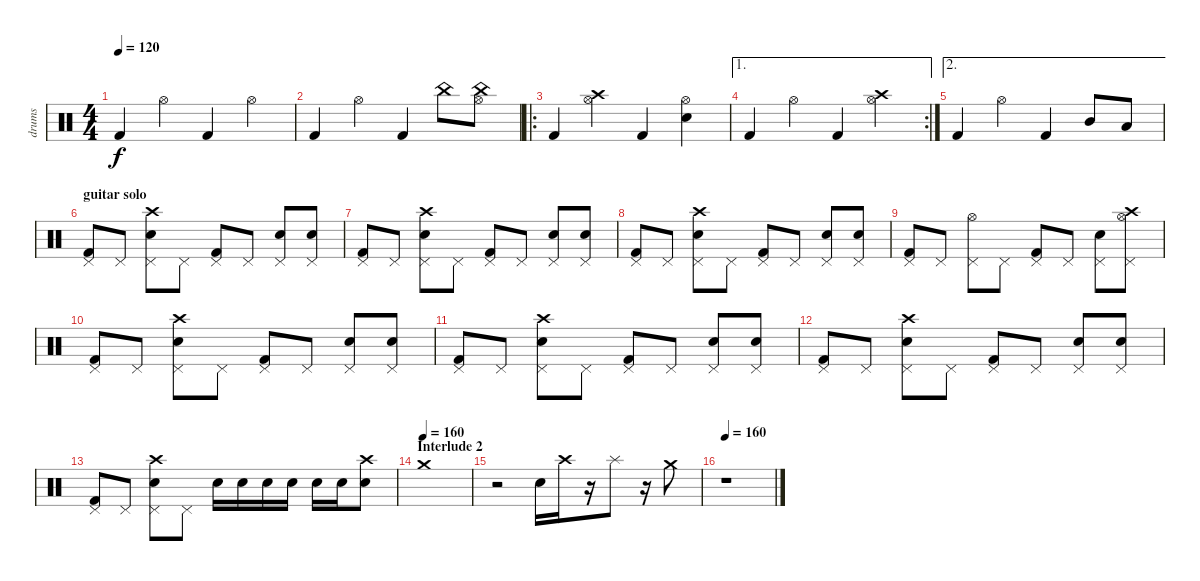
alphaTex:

\track ("drums" "drums") {instrument percussion}
\staff {score}
\articulation defaults
\ts (4 4)
\tempo 120
\clef neutral
\ks c "Kick (hit) 2".4{dy f} "Hi-Hat (open)".4 "Kick (hit) 2".4 "Hi-Hat (open)".4
|
"Kick (hit) 2".4 "Hi-Hat (open)".4 "Kick (hit) 2".4 "China (hit)".8 ("China (hit)" "Hi-Hat (open)").8 |
\ro "Kick (hit) 2".4
("Crash high (hit)" "Hi-Hat (open)").4 "Kick (hit) 2".4 ("Electric Snare (hit)" "Hi-Hat (open)").4 |
\ae 1
\rc 2 "Kick (hit) 2".4 "Hi-Hat (open)".4 "Kick (hit) 2".4
("Crash high (hit)" "Hi-Hat (open)").4 |
\ae 2 "Kick (hit) 2".4 "Hi-Hat (open)".4 "Kick (hit) 2".4 "Mid Tom (hit)".8 "Low Tom (hit)".8
|
\section ("" "guitar solo")
("Kick (hit) 2" "Pedal Hi-Hat (hit)").8 "Pedal Hi-Hat (hit)".8 ("Crash high (hit)" "Electric Snare (hit)" "Pedal Hi-Hat (hit)").8 "Pedal Hi-Hat (hit)".8 ("Kick (hit) 2" "Pedal Hi-Hat (hit)").8 "Pedal Hi-Hat (hit)".8 ("Electric Snare (hit)" "Pedal Hi-Hat (hit)").8 ("Electric Snare (hit)" "Pedal Hi-Hat (hit)").8 |
("Kick (hit) 2" "Pedal Hi-Hat (hit)").8 "Pedal Hi-Hat (hit)".8 ("Crash high (hit)" "Electric Snare (hit)" "Pedal Hi-Hat (hit)").8 "Pedal Hi-Hat (hit)".8 ("Kick (hit) 2" "Pedal Hi-Hat (hit)").8 "Pedal Hi-Hat (hit)".8 ("Electric Snare (hit)" "Pedal Hi-Hat (hit)").8 ("Electric Snare (hit)" "Pedal Hi-Hat (hit)").8 |
("Kick (hit) 2" "Pedal Hi-Hat (hit)").8 "Pedal Hi-Hat (hit)".8 ("Crash high (hit)" "Electric Snare (hit)" "Pedal Hi-Hat (hit)").8 "Pedal Hi-Hat (hit)".8 ("Kick (hit) 2" "Pedal Hi-Hat (hit)").8 "Pedal Hi-Hat (hit)".8 ("Electric Snare (hit)" "Pedal Hi-Hat (hit)").8 ("Electric Snare (hit)" "Pedal Hi-Hat (hit)").8 |
("Kick (hit) 2" "Pedal Hi-Hat (hit)").8 "Pedal Hi-Hat (hit)".8 ("Hi-Hat (open)" "Pedal Hi-Hat (hit)").8 "Pedal Hi-Hat (hit)".8 ("Kick (hit) 2" "Pedal Hi-Hat (hit)").8 "Pedal Hi-Hat (hit)".8 ("Electric Snare (hit)" "Pedal Hi-Hat (hit)").8 ("Crash high (hit)" "Hi-Hat (open)" "Pedal Hi-Hat (hit)").8 |
("Kick (hit) 2" "Pedal Hi-Hat (hit)").8 "Pedal Hi-Hat (hit)".8 ("Crash high (hit)" "Electric Snare (hit)" "Pedal Hi-Hat (hit)").8 "Pedal Hi-Hat (hit)".8 ("Kick (hit) 2" "Pedal Hi-Hat (hit)").8 "Pedal Hi-Hat (hit)".8 ("Electric Snare (hit)" "Pedal Hi-Hat (hit)").8 ("Electric Snare (hit)" "Pedal Hi-Hat (hit)").8 |
("Kick (hit) 2" "Pedal Hi-Hat (hit)").8 "Pedal Hi-Hat (hit)".8 ("Crash high (hit)" "Electric Snare (hit)" "Pedal Hi-Hat (hit)").8 "Pedal Hi-Hat (hit)".8 ("Kick (hit) 2" "Pedal Hi-Hat (hit)").8 "Pedal Hi-Hat (hit)".8 ("Electric Snare (hit)" "Pedal Hi-Hat (hit)").8 ("Electric Snare (hit)" "Pedal Hi-Hat (hit)").8 |
("Kick (hit) 2" "Pedal Hi-Hat (hit)").8 "Pedal Hi-Hat (hit)".8 ("Crash high (hit)" "Electric Snare (hit)" "Pedal Hi-Hat (hit)").8 "Pedal Hi-Hat (hit)".8 ("Kick (hit) 2" "Pedal Hi-Hat (hit)").8 "Pedal Hi-Hat (hit)".8 ("Electric Snare (hit)" "Pedal Hi-Hat (hit)").8 ("Electric Snare (hit)" "Pedal Hi-Hat (hit)").8 |
("Kick (hit) 2" "Pedal Hi-Hat (hit)").8 "Pedal Hi-Hat (hit)".8 ("Crash high (hit)" "Electric Snare (hit)" "Pedal Hi-Hat (hit)").8 "Pedal Hi-Hat (hit)".8 "Electric Snare (hit)".16 "Electric Snare (hit)".16 "Electric Snare (hit)".16 "Electric Snare (hit)".16 "Electric Snare (hit)".16 "Electric Snare (hit)".16 ("Crash high (hit)" "Electric Snare (hit)").8 |
\section ("" "Interlude 2")
\tempo (160)
"Crash medium (hit)".1 |
r.2 "Electric Snare (hit)".16 "Crash high (hit)".16 r.16 "Splash (hit)".8 r.16 "Crash medium (hit)".8 |
\tempo 160
r.1
